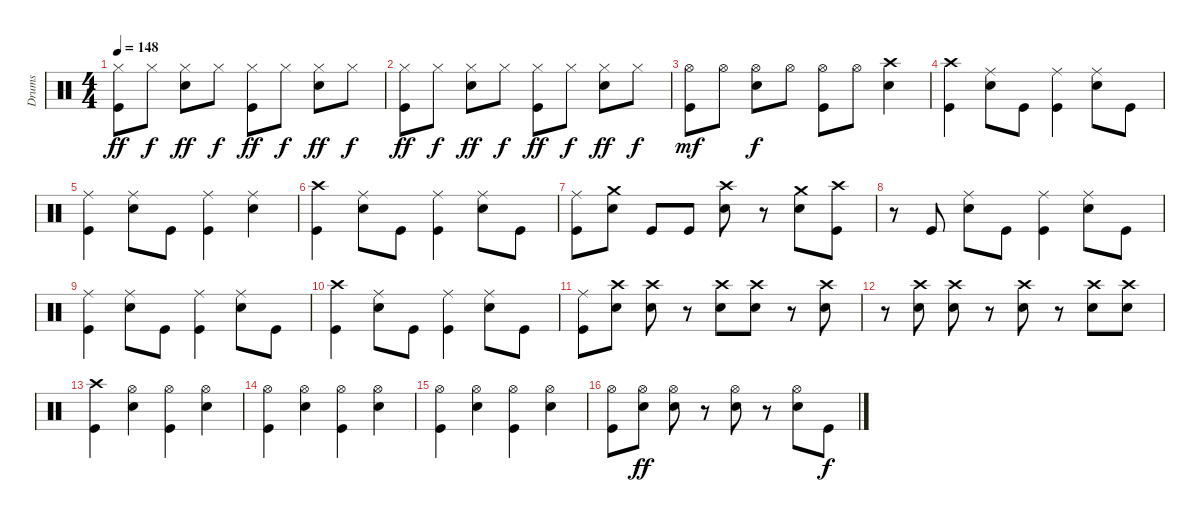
\track ("Drums" "Drums") {instrument percussion}
\staff {score}
\articulation defaults
\ts (4 4)
\tempo 148
\clef neutral
\ks c
("Hi-Hat (closed)" "Kick (hit)").8{dy ff} "Hi-Hat (closed)".8{dy f} ("Hi-Hat (closed)" "Snare (hit) 2").8{dy ff} "Hi-Hat (closed)".8{dy f} ("Hi-Hat (closed)" "Kick (hit)").8{dy ff} "Hi-Hat (closed)".8{dy f} ("Hi-Hat (closed)" "Snare (hit) 2").8{dy ff} "Hi-Hat (closed)".8{dy f} |
("Hi-Hat (closed)" "Kick (hit)").8{dy ff} "Hi-Hat (closed)".8{dy f} ("Hi-Hat (closed)" "Snare (hit) 2").8{dy ff} "Hi-Hat (closed)".8{dy f} ("Hi-Hat (closed)" "Kick (hit)").8{dy ff} "Hi-Hat (closed)".8{dy f} ("Hi-Hat (closed)" "Snare (hit) 2").8{dy ff} "Hi-Hat (closed)".8{dy f} |
("Hi-Hat (open)" "Kick (hit)").8{dy mf} "Hi-Hat (open)".8 ("Hi-Hat (open)" "Snare (hit) 2").8{dy f} "Hi-Hat (open)".8 ("Hi-Hat (open)" "Kick (hit)").8 "Hi-Hat (open)".8 ("Crash high (hit)" "Snare (hit) 2").4 |
("Crash high (hit)" "Kick (hit)").4 ("Ride (middle)" "Snare (hit) 2").8 "Kick (hit)".8 ("Ride (middle)" "Kick (hit)").4 ("Ride (middle)" "Snare (hit) 2").8 "Kick (hit)".8 |
("Ride (middle)" "Kick (hit)").4 ("Ride (middle)" "Snare (hit) 2").8 "Kick (hit)".8 ("Ride (middle)" "Kick (hit)").4 ("Ride (middle)" "Snare (hit) 2").4 |
("Crash high (hit)" "Kick (hit)").4 ("Ride (middle)" "Snare (hit) 2").8 "Kick (hit)".8 ("Ride (middle)" "Kick (hit)").4 ("Ride (middle)" "Snare (hit) 2").8 "Kick (hit)".8 |
("Ride (middle)" "Kick (hit)").8 ("Crash medium (hit)" "Snare (hit) 2").8 "Kick (hit)".8 "Kick (hit)".8 ("Crash high (hit)" "Snare (hit) 2").8 r.8 ("Crash medium (hit)" "Snare (hit) 2").8 ("Crash high (hit)" "Kick (hit)").8 |
r.8 "Kick (hit)".8 ("Ride (middle)" "Snare (hit) 2").8 "Kick (hit)".8 ("Ride (middle)" "Kick (hit)").4 ("Ride (middle)" "Snare (hit) 2").8 "Kick (hit)".8 |
("Ride (middle)" "Kick (hit)").4 ("Ride (middle)" "Snare (hit) 2").8 "Kick (hit)".8 ("Ride (middle)" "Kick (hit)").4 ("Ride (middle)" "Snare (hit) 2").8 "Kick (hit)".8 |
("Crash high (hit)" "Kick (hit)").4 ("Ride (middle)" "Snare (hit) 2").8 "Kick (hit)".8 ("Ride (middle)" "Kick (hit)").4 ("Ride (middle)" "Snare (hit) 2").8 "Kick (hit)".8 |
("Ride (middle)" "Kick (hit)").8 ("Crash high (hit)" "Snare (hit) 2").8 ("Crash high (hit)" "Snare (hit) 2").8 r.8 ("Crash high (hit)" "Snare (hit) 2").8 ("Crash high (hit)" "Snare (hit) 2").8 r.8 ("Crash high (hit)" "Snare (hit) 2").8 |
r.8 ("Crash high (hit)" "Snare (hit) 2").8 ("Crash high (hit)" "Snare (hit) 2").8 r.8 ("Crash high (hit)" "Snare (hit) 2").8 r.8 ("Crash high (hit)" "Snare (hit) 2").8 ("Crash high (hit)" "Snare (hit) 2").8 |
("Crash high (hit)" "Kick (hit)").4 ("Hi-Hat (open)" "Snare (hit) 2").4 ("Hi-Hat (open)" "Kick (hit)").4 ("Hi-Hat (open)" "Snare (hit) 2").4 |
("Hi-Hat (open)" "Kick (hit)").4 ("Hi-Hat (open)" "Snare (hit) 2").4 ("Hi-Hat (open)" "Kick (hit)").4 ("Hi-Hat (open)" "Snare (hit) 2").4 |
("Hi-Hat (open)" "Kick (hit)").4 ("Hi-Hat (open)" "Snare (hit) 2").4 ("Hi-Hat (open)" "Kick (hit)").4 ("Hi-Hat (open)" "Snare (hit) 2").4 |
("Hi-Hat (open)" "Kick (hit)").8 ("Hi-Hat (open)" "Snare (hit) 2").8{dy ff} ("Hi-Hat (open)" "Snare (hit) 2").8 r.8 ("Hi-Hat (open)" "Snare (hit) 2").8 r.8 ("Hi-Hat (open)" "Snare (hit) 2").8 "Kick (hit)".8{dy f}
